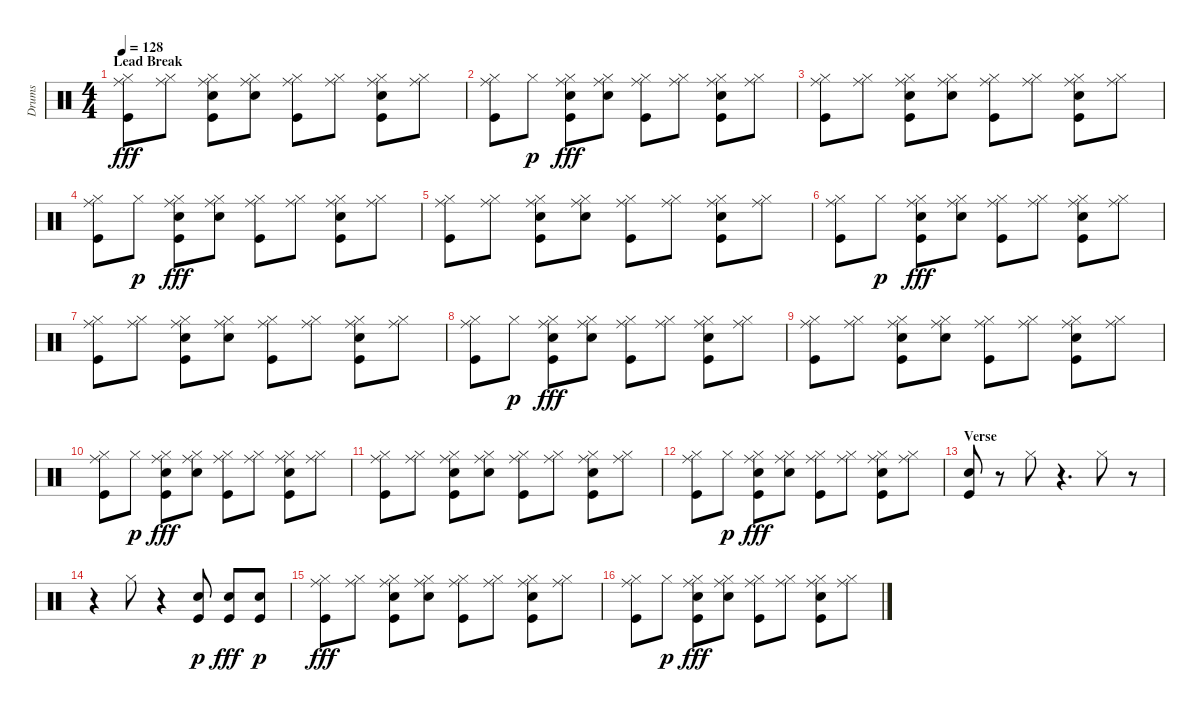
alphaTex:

\track ("Drums               " "Drums     ") {instrument percussion}
\staff {score}
\articulation defaults
\ts (4 4)
\section ("" "Lead Break")
\tempo 128
\clef neutral
\ks c
("Hi-Hat (closed)" "Kick (hit)" "Ride (middle)").8{dy fff} ("Hi-Hat (closed)" "Ride (middle)").8 ("Hi-Hat (closed)" "Kick (hit)" "Snare (hit) 2" "Ride (middle)").8 ("Hi-Hat (closed)" "Snare (hit) 2" "Ride (middle)").8 ("Hi-Hat (closed)" "Kick (hit)" "Ride (middle)").8 ("Hi-Hat (closed)" "Ride (middle)").8 ("Hi-Hat (closed)" "Kick (hit)" "Snare (hit) 2" "Ride (middle)").8 ("Hi-Hat (closed)" "Ride (middle)").8 |
("Hi-Hat (closed)" "Kick (hit)" "Ride (middle)").8 "Hi-Hat (closed)".8{dy p} ("Hi-Hat (closed)" "Kick (hit)" "Snare (hit) 2" "Ride (middle)").8{dy fff} ("Hi-Hat (closed)" "Snare (hit) 2" "Ride (middle)").8 ("Hi-Hat (closed)" "Kick (hit)" "Ride (middle)").8 ("Hi-Hat (closed)" "Ride (middle)").8 ("Hi-Hat (closed)" "Kick (hit)" "Snare (hit) 2" "Ride (middle)").8 ("Hi-Hat (closed)" "Ride (middle)").8 |
("Hi-Hat (closed)" "Kick (hit)" "Ride (middle)").8 ("Hi-Hat (closed)" "Ride (middle)").8 ("Hi-Hat (closed)" "Kick (hit)" "Snare (hit) 2" "Ride (middle)").8 ("Hi-Hat (closed)" "Snare (hit) 2" "Ride (middle)").8 ("Hi-Hat (closed)" "Kick (hit)" "Ride (middle)").8 ("Hi-Hat (closed)" "Ride (middle)").8 ("Hi-Hat (closed)" "Kick (hit)" "Snare (hit) 2" "Ride (middle)").8 ("Hi-Hat (closed)" "Ride (middle)").8 |
("Hi-Hat (closed)" "Kick (hit)" "Ride (middle)").8 "Hi-Hat (closed)".8{dy p} ("Hi-Hat (closed)" "Kick (hit)" "Snare (hit) 2" "Ride (middle)").8{dy fff} ("Hi-Hat (closed)" "Snare (hit) 2" "Ride (middle)").8 ("Hi-Hat (closed)" "Kick (hit)" "Ride (middle)").8 ("Hi-Hat (closed)" "Ride (middle)").8 ("Hi-Hat (closed)" "Kick (hit)" "Snare (hit) 2" "Ride (middle)").8 ("Hi-Hat (closed)" "Ride (middle)").8 |
("Hi-Hat (closed)" "Kick (hit)" "Ride (middle)").8 ("Hi-Hat (closed)" "Ride (middle)").8 ("Hi-Hat (closed)" "Kick (hit)" "Snare (hit) 2" "Ride (middle)").8 ("Hi-Hat (closed)" "Snare (hit) 2" "Ride (middle)").8 ("Hi-Hat (closed)" "Kick (hit)" "Ride (middle)").8 ("Hi-Hat (closed)" "Ride (middle)").8 ("Hi-Hat (closed)" "Kick (hit)" "Snare (hit) 2" "Ride (middle)").8 ("Hi-Hat (closed)" "Ride (middle)").8 |
("Hi-Hat (closed)" "Kick (hit)" "Ride (middle)").8 "Hi-Hat (closed)".8{dy p} ("Hi-Hat (closed)" "Kick (hit)" "Snare (hit) 2" "Ride (middle)").8{dy fff} ("Hi-Hat (closed)" "Snare (hit) 2" "Ride (middle)").8 ("Hi-Hat (closed)" "Kick (hit)" "Ride (middle)").8 ("Hi-Hat (closed)" "Ride (middle)").8 ("Hi-Hat (closed)" "Kick (hit)" "Snare (hit) 2" "Ride (middle)").8 ("Hi-Hat (closed)" "Ride (middle)").8 |
("Hi-Hat (closed)" "Kick (hit)" "Ride (middle)").8 ("Hi-Hat (closed)" "Ride (middle)").8 ("Hi-Hat (closed)" "Kick (hit)" "Snare (hit) 2" "Ride (middle)").8 ("Hi-Hat (closed)" "Snare (hit) 2" "Ride (middle)").8 ("Hi-Hat (closed)" "Kick (hit)" "Ride (middle)").8 ("Hi-Hat (closed)" "Ride (middle)").8 ("Hi-Hat (closed)" "Kick (hit)" "Snare (hit) 2" "Ride (middle)").8 ("Hi-Hat (closed)" "Ride (middle)").8 |
("Hi-Hat (closed)" "Kick (hit)" "Ride (middle)").8 "Hi-Hat (closed)".8{dy p} ("Hi-Hat (closed)" "Kick (hit)" "Snare (hit) 2" "Ride (middle)").8{dy fff} ("Hi-Hat (closed)" "Snare (hit) 2" "Ride (middle)").8 ("Hi-Hat (closed)" "Kick (hit)" "Ride (middle)").8 ("Hi-Hat (closed)" "Ride (middle)").8 ("Hi-Hat (closed)" "Kick (hit)" "Snare (hit) 2" "Ride (middle)").8 ("Hi-Hat (closed)" "Ride (middle)").8 |
("Hi-Hat (closed)" "Kick (hit)" "Ride (middle)").8 ("Hi-Hat (closed)" "Ride (middle)").8 ("Hi-Hat (closed)" "Kick (hit)" "Snare (hit) 2" "Ride (middle)").8 ("Hi-Hat (closed)" "Snare (hit) 2" "Ride (middle)").8 ("Hi-Hat (closed)" "Kick (hit)" "Ride (middle)").8 ("Hi-Hat (closed)" "Ride (middle)").8 ("Hi-Hat (closed)" "Kick (hit)" "Snare (hit) 2" "Ride (middle)").8 ("Hi-Hat (closed)" "Ride (middle)").8 |
("Hi-Hat (closed)" "Kick (hit)" "Ride (middle)").8 "Hi-Hat (closed)".8{dy p} ("Hi-Hat (closed)" "Kick (hit)" "Snare (hit) 2" "Ride (middle)").8{dy fff} ("Hi-Hat (closed)" "Snare (hit) 2" "Ride (middle)").8 ("Hi-Hat (closed)" "Kick (hit)" "Ride (middle)").8 ("Hi-Hat (closed)" "Ride (middle)").8 ("Hi-Hat (closed)" "Kick (hit)" "Snare (hit) 2" "Ride (middle)").8 ("Hi-Hat (closed)" "Ride (middle)").8 |
("Hi-Hat (closed)" "Kick (hit)" "Ride (middle)").8 ("Hi-Hat (closed)" "Ride (middle)").8 ("Hi-Hat (closed)" "Kick (hit)" "Snare (hit) 2" "Ride (middle)").8 ("Hi-Hat (closed)" "Snare (hit) 2" "Ride (middle)").8 ("Hi-Hat (closed)" "Kick (hit)" "Ride (middle)").8 ("Hi-Hat (closed)" "Ride (middle)").8 ("Hi-Hat (closed)" "Kick (hit)" "Snare (hit) 2" "Ride (middle)").8 ("Hi-Hat (closed)" "Ride (middle)").8 |
("Hi-Hat (closed)" "Kick (hit)" "Ride (middle)").8 "Hi-Hat (closed)".8{dy p} ("Hi-Hat (closed)" "Kick (hit)" "Snare (hit) 2" "Ride (middle)").8{dy fff} ("Hi-Hat (closed)" "Snare (hit) 2" "Ride (middle)").8 ("Hi-Hat (closed)" "Kick (hit)" "Ride (middle)").8 ("Hi-Hat (closed)" "Ride (middle)").8 ("Hi-Hat (closed)" "Kick (hit)" "Snare (hit) 2" "Ride (middle)").8 ("Hi-Hat (closed)" "Ride (middle)").8 |
\section ("" "Verse")
("Kick (hit)" "Snare (hit) 2").8 r.8 "Hi-Hat (closed)".8 r.4{d} "Hi-Hat (closed)".8 r.8 |
r.4 "Hi-Hat (closed)".8 r.4 ("Kick (hit)" "Snare (hit) 2").8{dy p} ("Kick (hit)" "Snare (hit) 2").8{dy fff} ("Kick (hit)" "Snare (hit) 2").8{dy p} |
("Hi-Hat (closed)" "Kick (hit)" "Ride (middle)").8{dy fff} ("Hi-Hat (closed)" "Ride (middle)").8 ("Hi-Hat (closed)" "Kick (hit)" "Snare (hit) 2" "Ride (middle)").8 ("Hi-Hat (closed)" "Snare (hit) 2" "Ride (middle)").8 ("Hi-Hat (closed)" "Kick (hit)" "Ride (middle)").8 ("Hi-Hat (closed)" "Ride (middle)").8 ("Hi-Hat (closed)" "Kick (hit)" "Snare (hit) 2" "Ride (middle)").8 ("Hi-Hat (closed)" "Ride (middle)").8 |
("Hi-Hat (closed)" "Kick (hit)" "Ride (middle)").8 "Hi-Hat (closed)".8{dy p} ("Hi-Hat (closed)" "Kick (hit)" "Snare (hit) 2" "Ride (middle)").8{dy fff} ("Hi-Hat (closed)" "Snare (hit) 2" "Ride (middle)").8 ("Hi-Hat (closed)" "Kick (hit)" "Ride (middle)").8 ("Hi-Hat (closed)" "Ride (middle)").8 ("Hi-Hat (closed)" "Kick (hit)" "Snare (hit) 2" "Ride (middle)").8 ("Hi-Hat (closed)" "Ride (middle)").8
